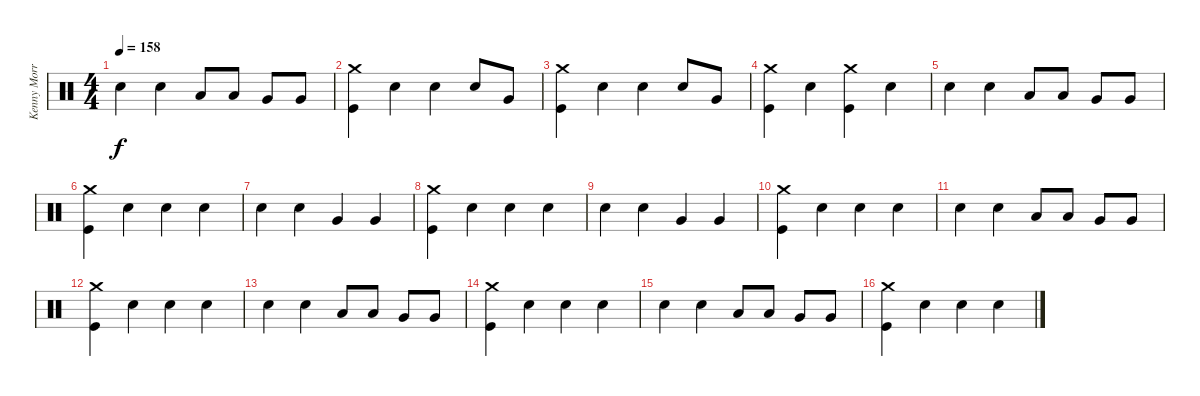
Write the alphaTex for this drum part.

\track ("Kenny Morris" "Kenny Morr") {instrument percussion}
\staff {score}
\articulation defaults
\ts (4 4)
\tempo 158
\clef neutral
\ks c "Snare (hit) 2".4{dy f} "Snare (hit) 2".4 "Low Tom (hit)".8 "Low Tom (hit)".8 "Very Low Tom (hit)".8 "Very Low Tom (hit)".8
|
("Crash medium (hit)" "Kick (hit)").4 "Snare (hit) 2".4 "Snare (hit) 2".4 "Snare (hit) 2".8 "Very Low Tom (hit)".8 |
("Crash medium (hit)" "Kick (hit)").4 "Snare (hit) 2".4 "Snare (hit) 2".4 "Snare (hit) 2".8 "Very Low Tom (hit)".8 |
("Crash medium (hit)" "Kick (hit)").4 "Snare (hit) 2".4 ("Crash medium (hit)" "Kick (hit)").4 "Snare (hit) 2".4 |
"Snare (hit) 2".4 "Snare (hit) 2".4 "Low Tom (hit)".8 "Low Tom (hit)".8 "Very Low Tom (hit)".8 "Very Low Tom (hit)".8 |
("Crash medium (hit)" "Kick (hit)").4 "Snare (hit) 2".4 "Snare (hit) 2".4 "Snare (hit) 2".4 |
"Snare (hit) 2".4 "Snare (hit) 2".4 "Very Low Tom (hit)".4 "Very Low Tom (hit)".4 |
("Crash medium (hit)" "Kick (hit)").4 "Snare (hit) 2".4 "Snare (hit) 2".4 "Snare (hit) 2".4 |
"Snare (hit) 2".4 "Snare (hit) 2".4 "Very Low Tom (hit)".4 "Very Low Tom (hit)".4 |
("Crash medium (hit)" "Kick (hit)").4 "Snare (hit) 2".4 "Snare (hit) 2".4 "Snare (hit) 2".4 |
"Snare (hit) 2".4 "Snare (hit) 2".4 "Low Tom (hit)".8 "Low Tom (hit)".8 "Very Low Tom (hit)".8 "Very Low Tom (hit)".8 |
("Crash medium (hit)" "Kick (hit)").4 "Snare (hit) 2".4 "Snare (hit) 2".4 "Snare (hit) 2".4 |
"Snare (hit) 2".4 "Snare (hit) 2".4 "Low Tom (hit)".8 "Low Tom (hit)".8 "Very Low Tom (hit)".8 "Very Low Tom (hit)".8 |
("Crash medium (hit)" "Kick (hit)").4 "Snare (hit) 2".4 "Snare (hit) 2".4 "Snare (hit) 2".4 |
"Snare (hit) 2".4 "Snare (hit) 2".4 "Low Tom (hit)".8 "Low Tom (hit)".8 "Very Low Tom (hit)".8 "Very Low Tom (hit)".8 |
("Crash medium (hit)" "Kick (hit)").4 "Snare (hit) 2".4 "Snare (hit) 2".4 "Snare (hit) 2".4
